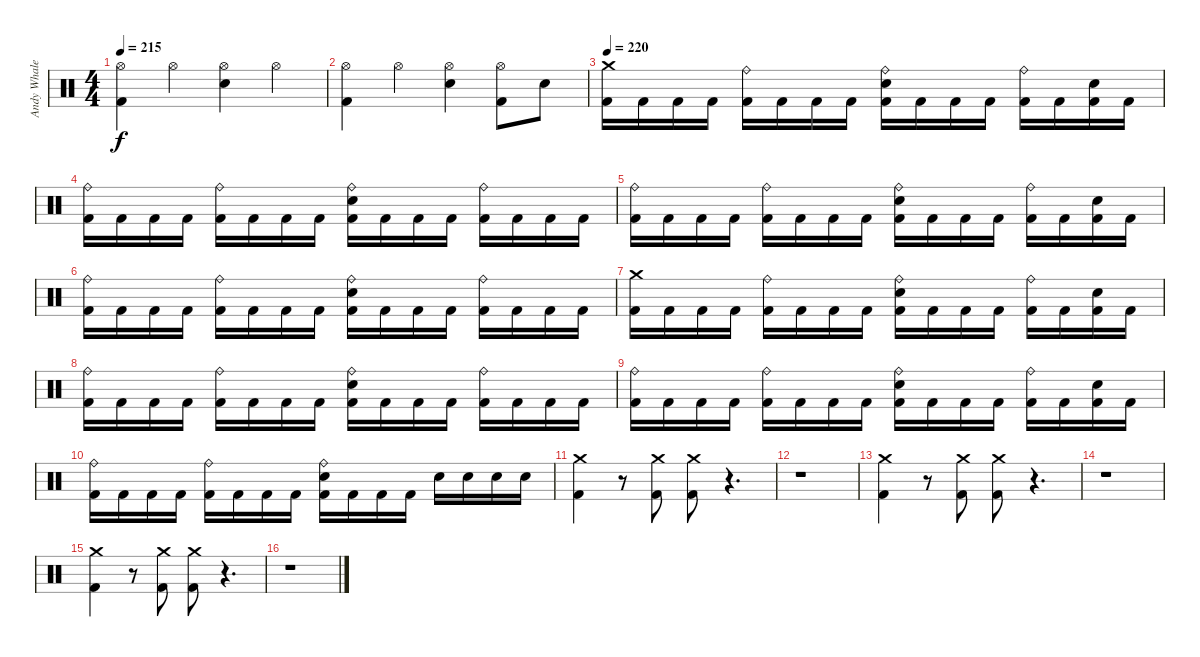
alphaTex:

\track ("Andy Whale" "Andy Whale") {instrument percussion}
\staff {score}
\articulation defaults
\ts (4 4)
\tempo 215
\clef neutral
\ks c
("Hi-Hat (open)" "Kick (hit) 2").4{dy f} "Hi-Hat (open)".4 ("Hi-Hat (open)" "Electric Snare (hit)").4 "Hi-Hat (open)".4 |
("Hi-Hat (open)" "Kick (hit) 2").4 "Hi-Hat (open)".4 ("Hi-Hat (open)" "Electric Snare (hit)").4 ("Hi-Hat (open)" "Kick (hit) 2").8 "Electric Snare (hit)".8 |
\tempo 220
("Crash medium (hit)" "Kick (hit) 2").16 "Kick (hit) 2".16 "Kick (hit) 2".16 "Kick (hit) 2".16 ("Ride (bell)" "Kick (hit) 2").16 "Kick (hit) 2".16 "Kick (hit) 2".16 "Kick (hit) 2".16 ("Ride (bell)" "Electric Snare (hit)" "Kick (hit) 2").16 "Kick (hit) 2".16 "Kick (hit) 2".16 "Kick (hit) 2".16 ("Ride (bell)" "Kick (hit) 2").16 "Kick (hit) 2".16 ("Electric Snare (hit)" "Kick (hit) 2").16 "Kick (hit) 2".16 |
("Ride (bell)" "Kick (hit) 2").16 "Kick (hit) 2".16 "Kick (hit) 2".16 "Kick (hit) 2".16 ("Ride (bell)" "Kick (hit) 2").16 "Kick (hit) 2".16 "Kick (hit) 2".16 "Kick (hit) 2".16 ("Ride (bell)" "Electric Snare (hit)" "Kick (hit) 2").16 "Kick (hit) 2".16 "Kick (hit) 2".16 "Kick (hit) 2".16 ("Ride (bell)" "Kick (hit) 2").16 "Kick (hit) 2".16 "Kick (hit) 2".16 "Kick (hit) 2".16 |
("Ride (bell)" "Kick (hit) 2").16 "Kick (hit) 2".16 "Kick (hit) 2".16 "Kick (hit) 2".16 ("Ride (bell)" "Kick (hit) 2").16 "Kick (hit) 2".16 "Kick (hit) 2".16 "Kick (hit) 2".16 ("Ride (bell)" "Electric Snare (hit)" "Kick (hit) 2").16 "Kick (hit) 2".16 "Kick (hit) 2".16 "Kick (hit) 2".16 ("Ride (bell)" "Kick (hit) 2").16 "Kick (hit) 2".16 ("Electric Snare (hit)" "Kick (hit) 2").16 "Kick (hit) 2".16 |
("Ride (bell)" "Kick (hit) 2").16 "Kick (hit) 2".16 "Kick (hit) 2".16 "Kick (hit) 2".16 ("Ride (bell)" "Kick (hit) 2").16 "Kick (hit) 2".16 "Kick (hit) 2".16 "Kick (hit) 2".16 ("Ride (bell)" "Electric Snare (hit)" "Kick (hit) 2").16 "Kick (hit) 2".16 "Kick (hit) 2".16 "Kick (hit) 2".16 ("Ride (bell)" "Kick (hit) 2").16 "Kick (hit) 2".16 "Kick (hit) 2".16 "Kick (hit) 2".16 |
("Crash medium (hit)" "Kick (hit) 2").16 "Kick (hit) 2".16 "Kick (hit) 2".16 "Kick (hit) 2".16 ("Ride (bell)" "Kick (hit) 2").16 "Kick (hit) 2".16 "Kick (hit) 2".16 "Kick (hit) 2".16 ("Ride (bell)" "Electric Snare (hit)" "Kick (hit) 2").16 "Kick (hit) 2".16 "Kick (hit) 2".16 "Kick (hit) 2".16 ("Ride (bell)" "Kick (hit) 2").16 "Kick (hit) 2".16 ("Electric Snare (hit)" "Kick (hit) 2").16 "Kick (hit) 2".16 |
("Ride (bell)" "Kick (hit) 2").16 "Kick (hit) 2".16 "Kick (hit) 2".16 "Kick (hit) 2".16 ("Ride (bell)" "Kick (hit) 2").16 "Kick (hit) 2".16 "Kick (hit) 2".16 "Kick (hit) 2".16 ("Ride (bell)" "Electric Snare (hit)" "Kick (hit) 2").16 "Kick (hit) 2".16 "Kick (hit) 2".16 "Kick (hit) 2".16 ("Ride (bell)" "Kick (hit) 2").16 "Kick (hit) 2".16 "Kick (hit) 2".16 "Kick (hit) 2".16 |
("Ride (bell)" "Kick (hit) 2").16 "Kick (hit) 2".16 "Kick (hit) 2".16 "Kick (hit) 2".16 ("Ride (bell)" "Kick (hit) 2").16 "Kick (hit) 2".16 "Kick (hit) 2".16 "Kick (hit) 2".16 ("Ride (bell)" "Electric Snare (hit)" "Kick (hit) 2").16 "Kick (hit) 2".16 "Kick (hit) 2".16 "Kick (hit) 2".16 ("Ride (bell)" "Kick (hit) 2").16 "Kick (hit) 2".16 ("Electric Snare (hit)" "Kick (hit) 2").16 "Kick (hit) 2".16 |
("Ride (bell)" "Kick (hit) 2").16 "Kick (hit) 2".16 "Kick (hit) 2".16 "Kick (hit) 2".16 ("Ride (bell)" "Kick (hit) 2").16 "Kick (hit) 2".16 "Kick (hit) 2".16 "Kick (hit) 2".16 ("Ride (bell)" "Electric Snare (hit)" "Kick (hit) 2").16 "Kick (hit) 2".16 "Kick (hit) 2".16 "Kick (hit) 2".16 "Electric Snare (hit)".16 "Electric Snare (hit)".16 "Electric Snare (hit)".16 "Electric Snare (hit)".16 |
("Crash medium (hit)" "Kick (hit) 2").4 r.8 ("Crash medium (hit)" "Kick (hit) 2").8 ("Crash medium (hit)" "Kick (hit) 2").8 r.4{d} |
r.1 |
("Crash medium (hit)" "Kick (hit) 2").4 r.8 ("Crash medium (hit)" "Kick (hit) 2").8 ("Crash medium (hit)" "Kick (hit) 2").8 r.4{d} |
r.1 |
("Crash medium (hit)" "Kick (hit) 2").4 r.8 ("Crash medium (hit)" "Kick (hit) 2").8 ("Crash medium (hit)" "Kick (hit) 2").8 r.4{d} |
r.1
